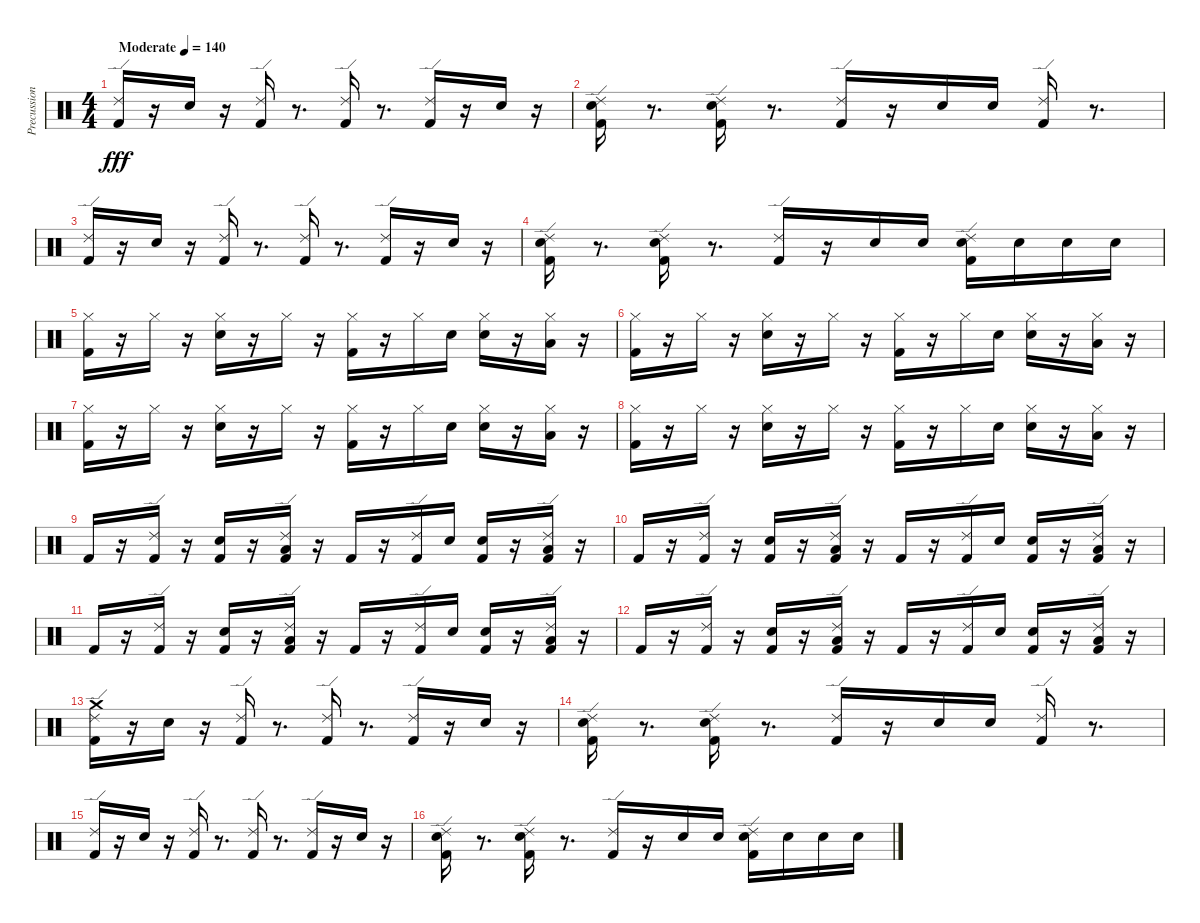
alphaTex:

\track ("Precussion" "Precussion") {instrument percussion}
\staff {score}
\articulation defaults
\ts (4 4)
\tempo (140 "Moderate")
\clef neutral
\ks c
("Ride (edge) 2" "Kick (hit) 2").16{dy fff} r.16 "Snare (hit) 2".16 r.16 ("Ride (edge) 2" "Kick (hit) 2").16 r.8{d} ("Ride (edge) 2" "Kick (hit) 2").16 r.8{d} ("Ride (edge) 2" "Kick (hit) 2").16 r.16 "Snare (hit) 2".16 r.16 |
("Snare (hit) 2" "Kick (hit) 2" "Ride (edge) 2").16 r.8{d} ("Snare (hit) 2" "Kick (hit) 2" "Ride (edge) 2").16 r.8{d} ("Kick (hit) 2" "Ride (edge) 2").16 r.16 "Snare (hit) 2".16 "Snare (hit) 2".16 ("Kick (hit) 2" "Ride (edge) 2").16 r.8{d} |
("Ride (edge) 2" "Kick (hit) 2").16 r.16 "Snare (hit) 2".16 r.16 ("Ride (edge) 2" "Kick (hit) 2").16 r.8{d} ("Ride (edge) 2" "Kick (hit) 2").16 r.8{d} ("Ride (edge) 2" "Kick (hit) 2").16 r.16 "Snare (hit) 2".16 r.16 |
("Snare (hit) 2" "Kick (hit) 2" "Ride (edge) 2").16 r.8{d} ("Snare (hit) 2" "Kick (hit) 2" "Ride (edge) 2").16 r.8{d} ("Kick (hit) 2" "Ride (edge) 2").16 r.16 "Snare (hit) 2".16 "Snare (hit) 2".16 ("Kick (hit) 2" "Ride (edge) 2" "Snare (hit) 2").16 "Snare (hit) 2".16 "Snare (hit) 2".16 "Snare (hit) 2".16 |
("Kick (hit) 2" "Hi-Hat (closed)").16 r.16 "Hi-Hat (closed)".16 r.16 ("Hi-Hat (closed)" "Snare (hit) 2").16 r.16 "Hi-Hat (closed)".16 r.16 ("Hi-Hat (closed)" "Kick (hit) 2").16 r.16 "Hi-Hat (closed)".16 "Snare (hit) 2".16 ("Hi-Hat (closed)" "Snare (hit) 2").16 r.16 ("Hi-Hat (closed)" "Low Floor Tom (hit)").16 r.16 |
("Kick (hit) 2" "Hi-Hat (closed)").16 r.16 "Hi-Hat (closed)".16 r.16 ("Hi-Hat (closed)" "Snare (hit) 2").16 r.16 "Hi-Hat (closed)".16 r.16 ("Hi-Hat (closed)" "Kick (hit) 2").16 r.16 "Hi-Hat (closed)".16 "Snare (hit) 2".16 ("Hi-Hat (closed)" "Snare (hit) 2").16 r.16 ("Hi-Hat (closed)" "Low Floor Tom (hit)").16 r.16 |
("Kick (hit) 2" "Hi-Hat (closed)").16 r.16 "Hi-Hat (closed)".16 r.16 ("Hi-Hat (closed)" "Snare (hit) 2").16 r.16 "Hi-Hat (closed)".16 r.16 ("Hi-Hat (closed)" "Kick (hit) 2").16 r.16 "Hi-Hat (closed)".16 "Snare (hit) 2".16 ("Hi-Hat (closed)" "Snare (hit) 2").16 r.16 ("Hi-Hat (closed)" "Low Floor Tom (hit)").16 r.16 |
("Kick (hit) 2" "Hi-Hat (closed)").16 r.16 "Hi-Hat (closed)".16 r.16 ("Hi-Hat (closed)" "Snare (hit) 2").16 r.16 "Hi-Hat (closed)".16 r.16 ("Hi-Hat (closed)" "Kick (hit) 2").16 r.16 "Hi-Hat (closed)".16 "Snare (hit) 2".16 ("Hi-Hat (closed)" "Snare (hit) 2").16 r.16 ("Hi-Hat (closed)" "Low Floor Tom (hit)").16 r.16 |
"Kick (hit) 2".16 r.16 ("Kick (hit) 2" "Ride (edge) 2").16 r.16 ("Kick (hit) 2" "Snare (hit) 2").16 r.16 ("Kick (hit) 2" "Ride (edge) 2" "Low Floor Tom (hit)").16 r.16 "Kick (hit) 2".16 r.16 ("Kick (hit) 2" "Ride (edge) 2").16 "Snare (hit) 2".16 ("Kick (hit) 2" "Snare (hit) 2").16 r.16 ("Kick (hit) 2" "Ride (edge) 2" "Low Floor Tom (hit)").16 r.16 |
"Kick (hit) 2".16 r.16 ("Kick (hit) 2" "Ride (edge) 2").16 r.16 ("Kick (hit) 2" "Snare (hit) 2").16 r.16 ("Kick (hit) 2" "Ride (edge) 2" "Low Floor Tom (hit)").16 r.16 "Kick (hit) 2".16 r.16 ("Kick (hit) 2" "Ride (edge) 2").16 "Snare (hit) 2".16 ("Kick (hit) 2" "Snare (hit) 2").16 r.16 ("Kick (hit) 2" "Ride (edge) 2" "Low Floor Tom (hit)").16 r.16 |
"Kick (hit) 2".16 r.16 ("Kick (hit) 2" "Ride (edge) 2").16 r.16 ("Kick (hit) 2" "Snare (hit) 2").16 r.16 ("Kick (hit) 2" "Ride (edge) 2" "Low Floor Tom (hit)").16 r.16 "Kick (hit) 2".16 r.16 ("Kick (hit) 2" "Ride (edge) 2").16 "Snare (hit) 2".16 ("Kick (hit) 2" "Snare (hit) 2").16 r.16 ("Kick (hit) 2" "Ride (edge) 2" "Low Floor Tom (hit)").16 r.16 |
"Kick (hit) 2".16 r.16 ("Kick (hit) 2" "Ride (edge) 2").16 r.16 ("Kick (hit) 2" "Snare (hit) 2").16 r.16 ("Kick (hit) 2" "Ride (edge) 2" "Low Floor Tom (hit)").16 r.16 "Kick (hit) 2".16 r.16 ("Kick (hit) 2" "Ride (edge) 2").16 "Snare (hit) 2".16 ("Kick (hit) 2" "Snare (hit) 2").16 r.16 ("Kick (hit) 2" "Ride (edge) 2" "Low Floor Tom (hit)").16 r.16 |
("Ride (edge) 2" "Kick (hit) 2" "Crash medium (hit)").16 r.16 "Snare (hit) 2".16 r.16 ("Ride (edge) 2" "Kick (hit) 2").16 r.8{d} ("Ride (edge) 2" "Kick (hit) 2").16 r.8{d} ("Ride (edge) 2" "Kick (hit) 2").16 r.16 "Snare (hit) 2".16 r.16 |
("Snare (hit) 2" "Kick (hit) 2" "Ride (edge) 2").16 r.8{d} ("Snare (hit) 2" "Kick (hit) 2" "Ride (edge) 2").16 r.8{d} ("Kick (hit) 2" "Ride (edge) 2").16 r.16 "Snare (hit) 2".16 "Snare (hit) 2".16 ("Kick (hit) 2" "Ride (edge) 2").16 r.8{d} |
("Ride (edge) 2" "Kick (hit) 2").16 r.16 "Snare (hit) 2".16 r.16 ("Ride (edge) 2" "Kick (hit) 2").16 r.8{d} ("Ride (edge) 2" "Kick (hit) 2").16 r.8{d} ("Ride (edge) 2" "Kick (hit) 2").16 r.16 "Snare (hit) 2".16 r.16 |
("Snare (hit) 2" "Kick (hit) 2" "Ride (edge) 2").16 r.8{d} ("Snare (hit) 2" "Kick (hit) 2" "Ride (edge) 2").16 r.8{d} ("Kick (hit) 2" "Ride (edge) 2").16 r.16 "Snare (hit) 2".16 "Snare (hit) 2".16 ("Kick (hit) 2" "Ride (edge) 2" "Snare (hit) 2").16 "Snare (hit) 2".16 "Snare (hit) 2".16 "Snare (hit) 2".16
